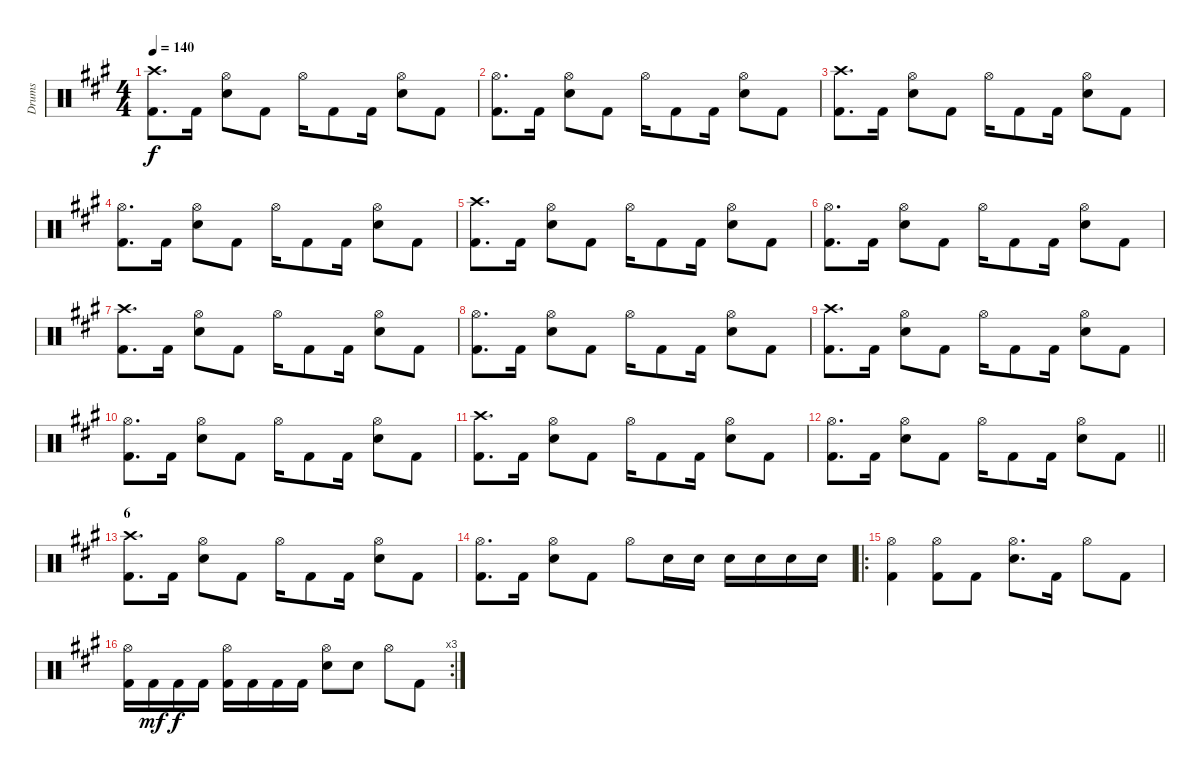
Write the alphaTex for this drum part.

\track ("Drums" "Drums") {instrument percussion}
\staff {score}
\articulation defaults
\ts (4 4)
\tempo 140
\clef neutral
\ks a
("Crash high (hit)" "Kick (hit) 2").8{d dy f} "Kick (hit) 2".16 ("Hi-Hat (open)" "Electric Snare (hit)").8 "Kick (hit) 2".8 "Hi-Hat (open)".16 "Kick (hit) 2".8 "Kick (hit) 2".16 ("Hi-Hat (open)" "Electric Snare (hit)").8 "Kick (hit) 2".8 |
("Hi-Hat (open)" "Kick (hit) 2").8{d} "Kick (hit) 2".16 ("Hi-Hat (open)" "Electric Snare (hit)").8 "Kick (hit) 2".8 "Hi-Hat (open)".16 "Kick (hit) 2".8 "Kick (hit) 2".16 ("Hi-Hat (open)" "Electric Snare (hit)").8 "Kick (hit) 2".8 |
("Crash high (hit)" "Kick (hit) 2").8{d} "Kick (hit) 2".16 ("Hi-Hat (open)" "Electric Snare (hit)").8 "Kick (hit) 2".8 "Hi-Hat (open)".16 "Kick (hit) 2".8 "Kick (hit) 2".16 ("Hi-Hat (open)" "Electric Snare (hit)").8 "Kick (hit) 2".8 |
("Hi-Hat (open)" "Kick (hit) 2").8{d} "Kick (hit) 2".16 ("Hi-Hat (open)" "Electric Snare (hit)").8 "Kick (hit) 2".8 "Hi-Hat (open)".16 "Kick (hit) 2".8 "Kick (hit) 2".16 ("Hi-Hat (open)" "Electric Snare (hit)").8 "Kick (hit) 2".8 |
("Crash high (hit)" "Kick (hit) 2").8{d} "Kick (hit) 2".16 ("Hi-Hat (open)" "Electric Snare (hit)").8 "Kick (hit) 2".8 "Hi-Hat (open)".16 "Kick (hit) 2".8 "Kick (hit) 2".16 ("Hi-Hat (open)" "Electric Snare (hit)").8 "Kick (hit) 2".8 |
("Hi-Hat (open)" "Kick (hit) 2").8{d} "Kick (hit) 2".16 ("Hi-Hat (open)" "Electric Snare (hit)").8 "Kick (hit) 2".8 "Hi-Hat (open)".16 "Kick (hit) 2".8 "Kick (hit) 2".16 ("Hi-Hat (open)" "Electric Snare (hit)").8 "Kick (hit) 2".8 |
("Crash high (hit)" "Kick (hit) 2").8{d} "Kick (hit) 2".16 ("Hi-Hat (open)" "Electric Snare (hit)").8 "Kick (hit) 2".8 "Hi-Hat (open)".16 "Kick (hit) 2".8 "Kick (hit) 2".16 ("Hi-Hat (open)" "Electric Snare (hit)").8 "Kick (hit) 2".8 |
("Hi-Hat (open)" "Kick (hit) 2").8{d} "Kick (hit) 2".16 ("Hi-Hat (open)" "Electric Snare (hit)").8 "Kick (hit) 2".8 "Hi-Hat (open)".16 "Kick (hit) 2".8 "Kick (hit) 2".16 ("Hi-Hat (open)" "Electric Snare (hit)").8 "Kick (hit) 2".8 |
("Crash high (hit)" "Kick (hit) 2").8{d} "Kick (hit) 2".16 ("Hi-Hat (open)" "Electric Snare (hit)").8 "Kick (hit) 2".8 "Hi-Hat (open)".16 "Kick (hit) 2".8 "Kick (hit) 2".16 ("Hi-Hat (open)" "Electric Snare (hit)").8 "Kick (hit) 2".8 |
("Hi-Hat (open)" "Kick (hit) 2").8{d} "Kick (hit) 2".16 ("Hi-Hat (open)" "Electric Snare (hit)").8 "Kick (hit) 2".8 "Hi-Hat (open)".16 "Kick (hit) 2".8 "Kick (hit) 2".16 ("Hi-Hat (open)" "Electric Snare (hit)").8 "Kick (hit) 2".8 |
("Crash high (hit)" "Kick (hit) 2").8{d} "Kick (hit) 2".16 ("Hi-Hat (open)" "Electric Snare (hit)").8 "Kick (hit) 2".8 "Hi-Hat (open)".16 "Kick (hit) 2".8 "Kick (hit) 2".16 ("Hi-Hat (open)" "Electric Snare (hit)").8 "Kick (hit) 2".8 |
\barLineRight lightlight
("Hi-Hat (open)" "Kick (hit) 2").8{d} "Kick (hit) 2".16 ("Hi-Hat (open)" "Electric Snare (hit)").8 "Kick (hit) 2".8 "Hi-Hat (open)".16 "Kick (hit) 2".8 "Kick (hit) 2".16 ("Hi-Hat (open)" "Electric Snare (hit)").8 "Kick (hit) 2".8 |
\section ("" "6")
("Crash high (hit)" "Kick (hit) 2").8{d} "Kick (hit) 2".16 ("Hi-Hat (open)" "Electric Snare (hit)").8 "Kick (hit) 2".8 "Hi-Hat (open)".16 "Kick (hit) 2".8 "Kick (hit) 2".16 ("Hi-Hat (open)" "Electric Snare (hit)").8 "Kick (hit) 2".8 |
("Hi-Hat (open)" "Kick (hit) 2").8{d} "Kick (hit) 2".16 ("Hi-Hat (open)" "Electric Snare (hit)").8 "Kick (hit) 2".8 "Hi-Hat (open)".8 "Electric Snare (hit)".16 "Electric Snare (hit)".16 "Electric Snare (hit)".16 "Electric Snare (hit)".16 "Electric Snare (hit)".16 "Electric Snare (hit)".16 |
\ro
("Kick (hit) 2" "Hi-Hat (open)").4 ("Hi-Hat (open)" "Kick (hit) 2").8 "Kick (hit) 2".8 ("Hi-Hat (open)" "Electric Snare (hit)").8{d} "Kick (hit) 2".16 "Hi-Hat (open)".8 "Kick (hit) 2".8 |
\rc 3
("Kick (hit) 2" "Hi-Hat (open)").16 "Kick (hit) 2".16{dy mf} "Kick (hit) 2".16{dy f} "Kick (hit) 2".16 ("Hi-Hat (open)" "Kick (hit) 2").16 "Kick (hit) 2".16 "Kick (hit) 2".16 "Kick (hit) 2".16 ("Hi-Hat (open)" "Electric Snare (hit)").8 "Electric Snare (hit)".8 "Hi-Hat (open)".8 "Kick (hit) 2".8
